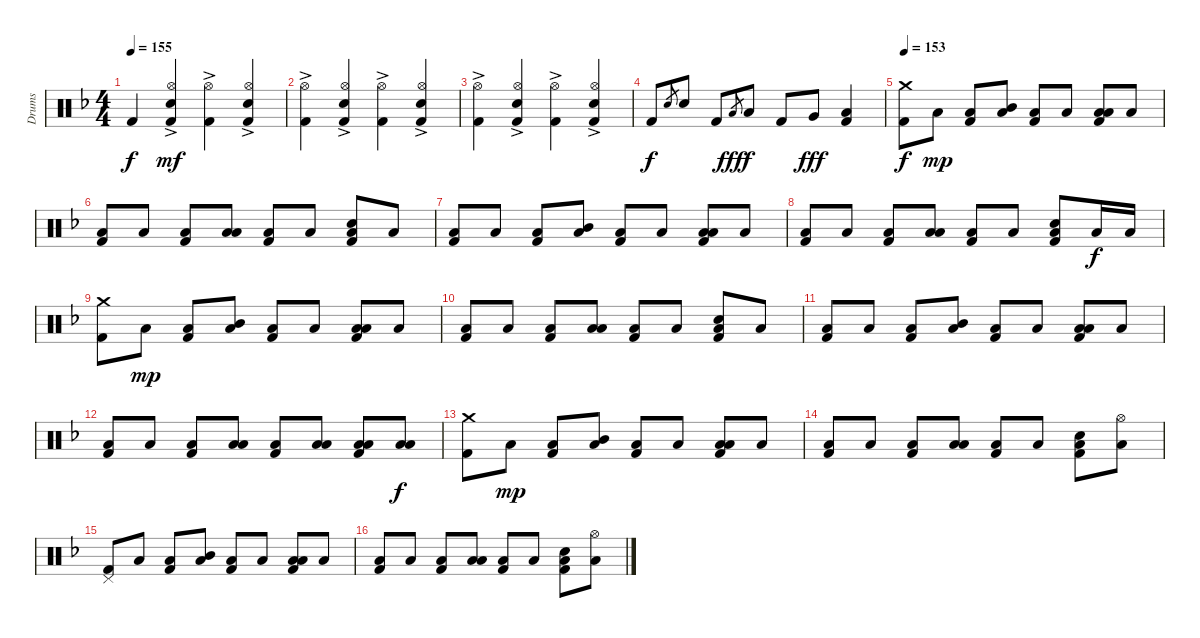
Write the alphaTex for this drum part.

\track ("Drums" "Drums") {instrument percussion}
\staff {score}
\articulation defaults
\ts (4 4)
\tempo 155
\clef neutral
\ks dminor "Kick (hit) 2".4{dy f}
("Hi-Hat (open)"{ac} "Snare (hit) 2" "Kick (hit) 2").4{dy mf} ("Hi-Hat (open)"{ac} "Kick (hit) 2").4 ("Hi-Hat (open)"{ac} "Snare (hit) 2" "Kick (hit) 2").4 |
("Hi-Hat (open)"{ac} "Kick (hit) 2").4 ("Hi-Hat (open)"{ac} "Snare (hit) 2" "Kick (hit) 2").4 ("Hi-Hat (open)"{ac} "Kick (hit) 2").4 ("Hi-Hat (open)"{ac} "Snare (hit) 2" "Kick (hit) 2").4 |
("Hi-Hat (open)"{ac} "Kick (hit) 2").4 ("Hi-Hat (open)"{ac} "Snare (hit) 2" "Kick (hit) 2").4 ("Hi-Hat (open)"{ac} "Kick (hit) 2").4 ("Hi-Hat (open)"{ac} "Snare (hit) 2" "Kick (hit) 2").4 |
"Kick (hit) 2".8{dy f} "Snare (hit) 2".8{gr} "Snare (hit) 2".8 "Kick (hit) 2".8 "Low Tom (hit)".8{gr dy fff} "Low Tom (hit)".8{dy f} "Kick (hit) 2".8 "Very Low Tom (hit)".8{dy fff} ("Low Floor Tom (hit)" "Kick (hit) 2").4 |
\tempo 153
("Crash medium (hit)" "Kick (hit) 2").8{dy f} "Low Floor Tom (hit)".8{dy mp} ("Low Floor Tom (hit)" "Kick (hit) 2").8 ("Mid Tom (hit)" "Low Floor Tom (hit)").8 ("Low Floor Tom (hit)" "Kick (hit) 2").8 "Low Floor Tom (hit)".8 ("Low Tom (hit)" "Low Floor Tom (hit)" "Kick (hit) 2").8 "Low Floor Tom (hit)".8 |
("Low Floor Tom (hit)" "Kick (hit) 2").8 "Low Floor Tom (hit)".8 ("Low Floor Tom (hit)" "Kick (hit) 2").8 ("Low Tom (hit)" "Low Floor Tom (hit)").8 ("Low Floor Tom (hit)" "Kick (hit) 2").8 "Low Floor Tom (hit)".8 ("Snare (hit) 2" "Low Floor Tom (hit)" "Kick (hit) 2").8 "Low Floor Tom (hit)".8 |
("Low Floor Tom (hit)" "Kick (hit) 2").8 "Low Floor Tom (hit)".8 ("Low Floor Tom (hit)" "Kick (hit) 2").8 ("Mid Tom (hit)" "Low Floor Tom (hit)").8 ("Low Floor Tom (hit)" "Kick (hit) 2").8 "Low Floor Tom (hit)".8 ("Low Tom (hit)" "Low Floor Tom (hit)" "Kick (hit) 2").8 "Low Floor Tom (hit)".8 |
("Low Floor Tom (hit)" "Kick (hit) 2").8 "Low Floor Tom (hit)".8 ("Low Floor Tom (hit)" "Kick (hit) 2").8 ("Low Tom (hit)" "Low Floor Tom (hit)").8 ("Low Floor Tom (hit)" "Kick (hit) 2").8 "Low Floor Tom (hit)".8 ("Snare (hit) 2" "Low Floor Tom (hit)" "Kick (hit) 2").8 "Low Floor Tom (hit)".16{dy f} "Low Floor Tom (hit)".16 |
("Crash medium (hit)" "Kick (hit) 2").8 "Low Floor Tom (hit)".8{dy mp} ("Low Floor Tom (hit)" "Kick (hit) 2").8 ("Mid Tom (hit)" "Low Floor Tom (hit)").8 ("Low Floor Tom (hit)" "Kick (hit) 2").8 "Low Floor Tom (hit)".8 ("Low Tom (hit)" "Low Floor Tom (hit)" "Kick (hit) 2").8 "Low Floor Tom (hit)".8 |
("Low Floor Tom (hit)" "Kick (hit) 2").8 "Low Floor Tom (hit)".8 ("Low Floor Tom (hit)" "Kick (hit) 2").8 ("Low Tom (hit)" "Low Floor Tom (hit)").8 ("Low Floor Tom (hit)" "Kick (hit) 2").8 "Low Floor Tom (hit)".8 ("Snare (hit) 2" "Low Floor Tom (hit)" "Kick (hit) 2").8 "Low Floor Tom (hit)".8 |
("Low Floor Tom (hit)" "Kick (hit) 2").8 "Low Floor Tom (hit)".8 ("Low Floor Tom (hit)" "Kick (hit) 2").8 ("Mid Tom (hit)" "Low Floor Tom (hit)").8 ("Low Floor Tom (hit)" "Kick (hit) 2").8 "Low Floor Tom (hit)".8 ("Low Tom (hit)" "Low Floor Tom (hit)" "Kick (hit) 2").8 "Low Floor Tom (hit)".8 |
("Low Floor Tom (hit)" "Kick (hit) 2").8 "Low Floor Tom (hit)".8 ("Low Floor Tom (hit)" "Kick (hit) 2").8 ("Low Tom (hit)" "Low Floor Tom (hit)").8 ("Low Floor Tom (hit)" "Kick (hit) 2").8 ("Low Tom (hit)" "Low Floor Tom (hit)").8 ("Low Tom (hit)" "Low Floor Tom (hit)" "Kick (hit) 2").8 ("Low Tom (hit)" "Low Floor Tom (hit)").8{dy f} |
("Crash medium (hit)" "Kick (hit) 2").8 "Low Floor Tom (hit)".8{dy mp} ("Low Floor Tom (hit)" "Kick (hit) 2").8 ("Mid Tom (hit)" "Low Floor Tom (hit)").8 ("Low Floor Tom (hit)" "Kick (hit) 2").8 "Low Floor Tom (hit)".8 ("Low Tom (hit)" "Low Floor Tom (hit)" "Kick (hit) 2").8 "Low Floor Tom (hit)".8 |
("Low Floor Tom (hit)" "Kick (hit) 2").8 "Low Floor Tom (hit)".8 ("Low Floor Tom (hit)" "Kick (hit) 2").8 ("Low Tom (hit)" "Low Floor Tom (hit)").8 ("Low Floor Tom (hit)" "Kick (hit) 2").8 "Low Floor Tom (hit)".8 ("Snare (hit) 2" "Low Floor Tom (hit)" "Kick (hit) 2").8 ("Hi-Hat (open)" "Low Floor Tom (hit)").8 |
("Pedal Hi-Hat (hit)" "Kick (hit) 2").8 "Low Floor Tom (hit)".8 ("Low Floor Tom (hit)" "Kick (hit) 2").8 ("Mid Tom (hit)" "Low Floor Tom (hit)").8 ("Low Floor Tom (hit)" "Kick (hit) 2").8 "Low Floor Tom (hit)".8 ("Low Tom (hit)" "Low Floor Tom (hit)" "Kick (hit) 2").8 "Low Floor Tom (hit)".8 |
("Low Floor Tom (hit)" "Kick (hit) 2").8 "Low Floor Tom (hit)".8 ("Low Floor Tom (hit)" "Kick (hit) 2").8 ("Low Tom (hit)" "Low Floor Tom (hit)").8 ("Low Floor Tom (hit)" "Kick (hit) 2").8 "Low Floor Tom (hit)".8 ("Snare (hit) 2" "Low Floor Tom (hit)" "Kick (hit) 2").8 ("Hi-Hat (open)" "Low Floor Tom (hit)").8
